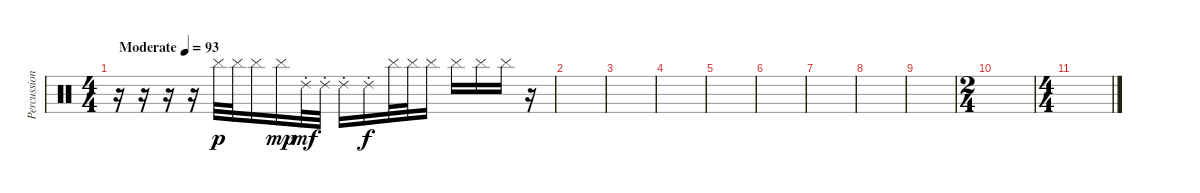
\track ("Percussion" "Percussion") {instrument percussion}
\staff {score}
\articulation defaults
\ts (4 4)
\tempo (93 "Moderate")
\clef neutral
\ks c
r.16{dy p} r.16 r.16 r.16 "Cymbal (hit)".32 "Cymbal (hit)".32 "Cymbal (hit)".16 "Cymbal (hit)".16{dy mp} "Ride (choke) 2".32{dy mf} "Ride (choke) 2".32 "Ride (choke) 2".16 "Ride (choke) 2".16{dy f} "Cymbal (hit)".32 "Cymbal (hit)".32 "Cymbal (hit)".16 "Cymbal (hit)".16 "Cymbal (hit)".16 "Cymbal (hit)".16 r.16 |
|
|
|
|
|
|
|
|
\ts (2 4)
|
\ts (4 4)
